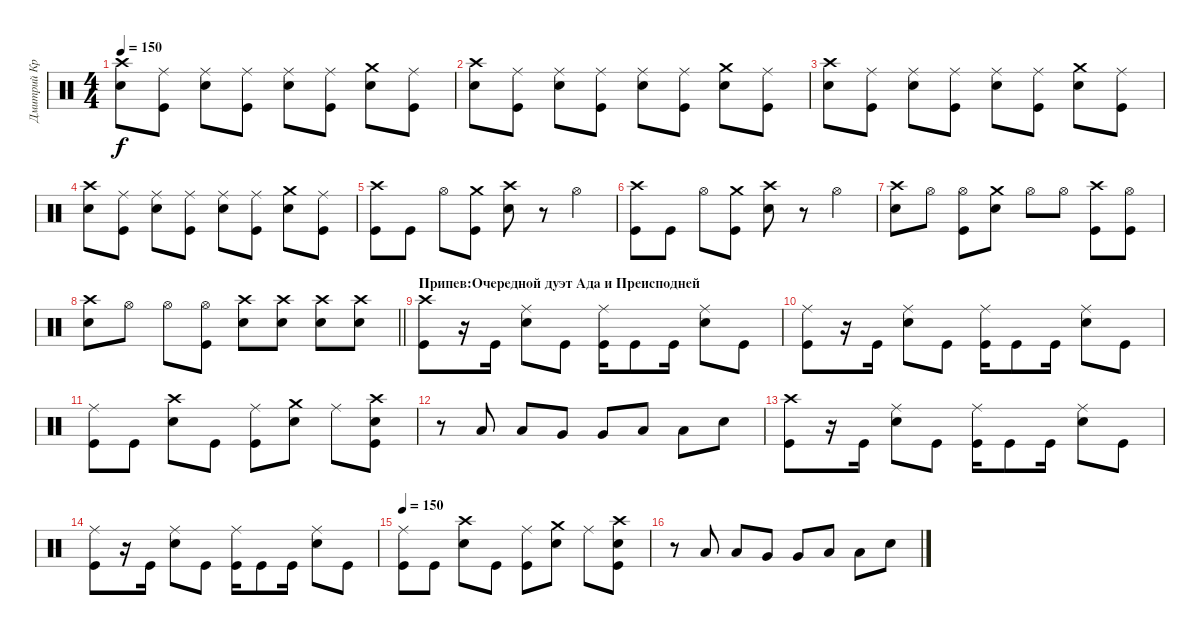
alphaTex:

\track ("Дмитрий Кривенков" "Дмитрий Кр") {instrument percussion}
\staff {score}
\articulation defaults
\ts (4 4)
\tempo 150
\clef neutral
\ks c
("Crash high (hit)" "Electric Snare (hit)").8{dy f} ("Ride (middle)" "Kick (hit)").8 ("Electric Snare (hit)" "Ride (middle)").8 ("Ride (middle)" "Kick (hit)").8 ("Ride (middle)" "Electric Snare (hit)").8 ("Ride (middle)" "Kick (hit)").8 ("Crash medium (hit)" "Electric Snare (hit)").8 ("Ride (middle)" "Kick (hit)").8 |
("Crash high (hit)" "Electric Snare (hit)").8 ("Kick (hit)" "Ride (middle)").8 ("Ride (middle)" "Electric Snare (hit)").8 ("Kick (hit)" "Ride (middle)").8 ("Ride (middle)" "Electric Snare (hit)").8 ("Kick (hit)" "Ride (middle)").8 ("Crash medium (hit)" "Electric Snare (hit)").8 ("Ride (middle)" "Kick (hit)").8 |
("Electric Snare (hit)" "Crash high (hit)").8 ("Ride (middle)" "Kick (hit)").8 ("Electric Snare (hit)" "Ride (middle)").8 ("Ride (middle)" "Kick (hit)").8 ("Ride (middle)" "Electric Snare (hit)").8 ("Ride (middle)" "Kick (hit)").8 ("Crash medium (hit)" "Electric Snare (hit)").8 ("Kick (hit)" "Ride (middle)").8 |
("Crash high (hit)" "Electric Snare (hit)").8 ("Kick (hit)" "Ride (middle)").8 ("Ride (middle)" "Electric Snare (hit)").8 ("Ride (middle)" "Kick (hit)").8 ("Electric Snare (hit)" "Ride (middle)").8 ("Ride (middle)" "Kick (hit)").8 ("Electric Snare (hit)" "Crash medium (hit)").8 ("Kick (hit)" "Ride (middle)").8 |
("Kick (hit)" "Crash high (hit)").8 "Kick (hit)".8 "Hi-Hat (open)".8 ("Crash medium (hit)" "Kick (hit)").8 ("Crash high (hit)" "Electric Snare (hit)").8 r.8 "Hi-Hat (open)".4 |
("Crash high (hit)" "Kick (hit)").8 "Kick (hit)".8 "Hi-Hat (open)".8 ("Kick (hit)" "Crash medium (hit)").8 ("Crash high (hit)" "Electric Snare (hit)").8 r.8 "Hi-Hat (open)".4 |
("Crash high (hit)" "Electric Snare (hit)").8 "Hi-Hat (open)".8 ("Kick (hit)" "Hi-Hat (open)").8 ("Crash medium (hit)" "Electric Snare (hit)").8 "Hi-Hat (open)".8 "Hi-Hat (open)".8 ("Kick (hit)" "Crash high (hit)").8 ("Hi-Hat (open)" "Kick (hit)").8 |
\barLineRight lightlight
("Electric Snare (hit)" "Crash high (hit)").8 "Hi-Hat (open)".8 "Hi-Hat (open)".8 ("Hi-Hat (open)" "Kick (hit)").8 ("Crash high (hit)" "Electric Snare (hit)").8 ("Crash high (hit)" "Electric Snare (hit)").8 ("Electric Snare (hit)" "Crash high (hit)").8 ("Electric Snare (hit)" "Crash high (hit)").8 |
\section ("" "Припев:Очередной дуэт Ада и Преисподней")
("Crash high (hit)" "Kick (hit)").8 r.16 "Kick (hit)".16 ("Ride (middle)" "Electric Snare (hit)").8 "Kick (hit)".8 ("Ride (middle)" "Kick (hit)").16 "Kick (hit)".8 "Kick (hit)".16 ("Ride (middle)" "Electric Snare (hit)").8 "Kick (hit)".8 |
("Kick (hit)" "Ride (middle)").8 r.16 "Kick (hit)".16 ("Ride (middle)" "Electric Snare (hit)").8 "Kick (hit)".8 ("Ride (middle)" "Kick (hit)").16 "Kick (hit)".8 "Kick (hit)".16 ("Ride (middle)" "Electric Snare (hit)").8 "Kick (hit)".8 |
("Ride (middle)" "Kick (hit)").8 "Kick (hit)".8 ("Crash high (hit)" "Electric Snare (hit)").8 "Kick (hit)".8 ("Ride (middle)" "Kick (hit)").8 ("Electric Snare (hit)" "Crash medium (hit)").8 "Ride (middle)".8 ("Crash high (hit)" "Electric Snare (hit)" "Kick (hit)").8 |
r.8 "Low Tom (hit)".8 "Low Tom (hit)".8 "Very Low Tom (hit)".8 "Very Low Tom (hit)".8 "Low Floor Tom (hit)".8 "Low Floor Tom (hit)".8 "Electric Snare (hit)".8 |
("Crash high (hit)" "Kick (hit)").8 r.16 "Kick (hit)".16 ("Ride (middle)" "Electric Snare (hit)").8 "Kick (hit)".8 ("Ride (middle)" "Kick (hit)").16 "Kick (hit)".8 "Kick (hit)".16 ("Ride (middle)" "Electric Snare (hit)").8 "Kick (hit)".8 |
("Kick (hit)" "Ride (middle)").8 r.16 "Kick (hit)".16 ("Ride (middle)" "Electric Snare (hit)").8 "Kick (hit)".8 ("Ride (middle)" "Kick (hit)").16 "Kick (hit)".8 "Kick (hit)".16 ("Ride (middle)" "Electric Snare (hit)").8 "Kick (hit)".8 |
\tempo 150
("Ride (middle)" "Kick (hit)").8 "Kick (hit)".8 ("Crash high (hit)" "Electric Snare (hit)").8 "Kick (hit)".8 ("Ride (middle)" "Kick (hit)").8 ("Electric Snare (hit)" "Crash medium (hit)").8 "Ride (middle)".8 ("Crash high (hit)" "Electric Snare (hit)" "Kick (hit)").8 |
r.8 "Low Tom (hit)".8 "Low Tom (hit)".8 "Very Low Tom (hit)".8 "Very Low Tom (hit)".8 "Low Floor Tom (hit)".8 "Low Floor Tom (hit)".8 "Electric Snare (hit)".8
